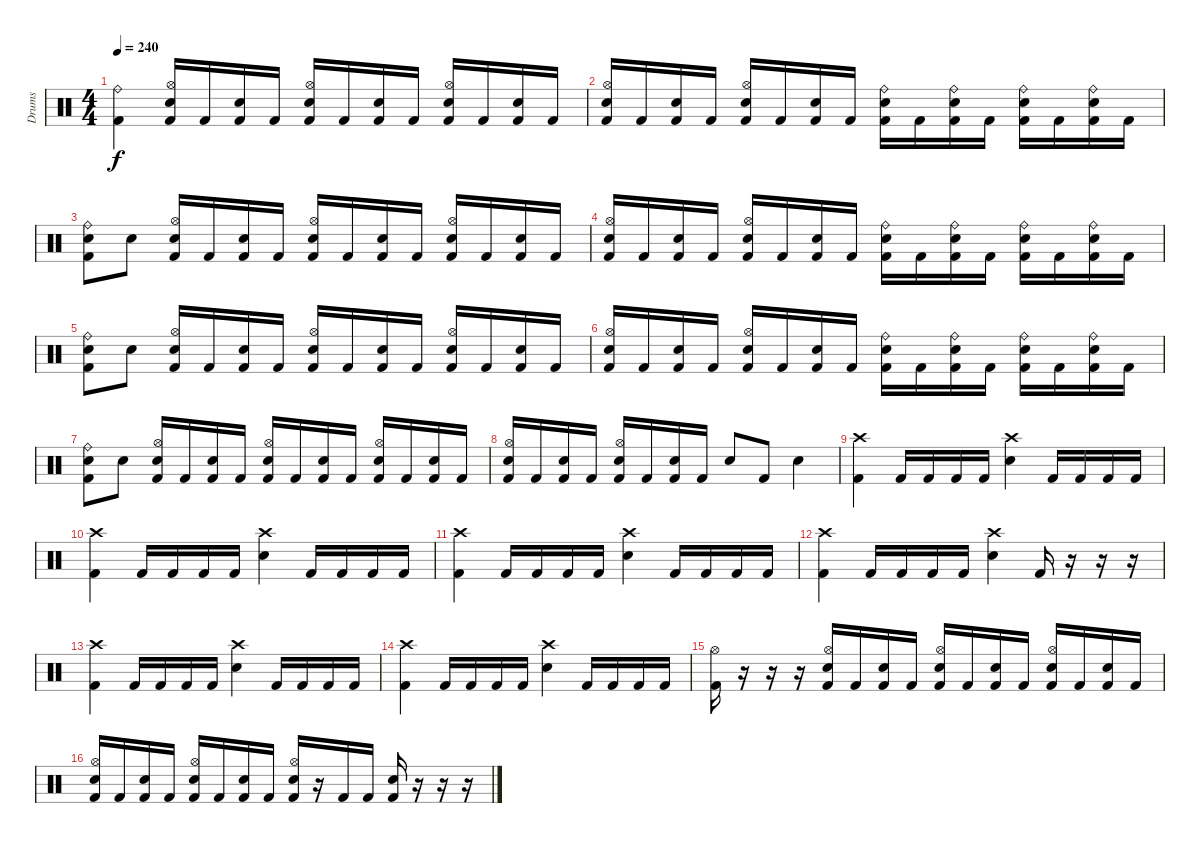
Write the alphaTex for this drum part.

\track ("Drums" "Drums") {instrument percussion}
\staff {score}
\articulation defaults
\ts (4 4)
\tempo 240
\clef neutral
\ks c
("Ride (bell)" "Kick (hit) 2").4{dy f} ("Hi-Hat (open)" "Snare (hit) 2" "Kick (hit) 2").16 "Kick (hit) 2".16 ("Snare (hit) 2" "Kick (hit) 2").16 "Kick (hit) 2".16 ("Hi-Hat (open)" "Snare (hit) 2" "Kick (hit) 2").16 "Kick (hit) 2".16 ("Snare (hit) 2" "Kick (hit) 2").16 "Kick (hit) 2".16 ("Hi-Hat (open)" "Snare (hit) 2" "Kick (hit) 2").16 "Kick (hit) 2".16 ("Snare (hit) 2" "Kick (hit) 2").16 "Kick (hit) 2".16 |
("Hi-Hat (open)" "Snare (hit) 2" "Kick (hit) 2").16 "Kick (hit) 2".16 ("Snare (hit) 2" "Kick (hit) 2").16 "Kick (hit) 2".16 ("Hi-Hat (open)" "Snare (hit) 2" "Kick (hit) 2").16 "Kick (hit) 2".16 ("Snare (hit) 2" "Kick (hit) 2").16 "Kick (hit) 2".16 ("Ride (bell)" "Snare (hit) 2" "Kick (hit) 2").16 "Kick (hit) 2".16 ("Ride (bell)" "Snare (hit) 2" "Kick (hit) 2").16 "Kick (hit) 2".16 ("Ride (bell)" "Snare (hit) 2" "Kick (hit) 2").16 "Kick (hit) 2".16 ("Ride (bell)" "Snare (hit) 2" "Kick (hit) 2").16 "Kick (hit) 2".16 |
("Ride (bell)" "Snare (hit) 2" "Kick (hit) 2").8 "Snare (hit) 2".8 ("Hi-Hat (open)" "Snare (hit) 2" "Kick (hit) 2").16 "Kick (hit) 2".16 ("Snare (hit) 2" "Kick (hit) 2").16 "Kick (hit) 2".16 ("Hi-Hat (open)" "Snare (hit) 2" "Kick (hit) 2").16 "Kick (hit) 2".16 ("Snare (hit) 2" "Kick (hit) 2").16 "Kick (hit) 2".16 ("Hi-Hat (open)" "Snare (hit) 2" "Kick (hit) 2").16 "Kick (hit) 2".16 ("Snare (hit) 2" "Kick (hit) 2").16 "Kick (hit) 2".16 |
("Hi-Hat (open)" "Snare (hit) 2" "Kick (hit) 2").16 "Kick (hit) 2".16 ("Snare (hit) 2" "Kick (hit) 2").16 "Kick (hit) 2".16 ("Hi-Hat (open)" "Snare (hit) 2" "Kick (hit) 2").16 "Kick (hit) 2".16 ("Snare (hit) 2" "Kick (hit) 2").16 "Kick (hit) 2".16 ("Ride (bell)" "Snare (hit) 2" "Kick (hit) 2").16 "Kick (hit) 2".16 ("Ride (bell)" "Snare (hit) 2" "Kick (hit) 2").16 "Kick (hit) 2".16 ("Ride (bell)" "Snare (hit) 2" "Kick (hit) 2").16 "Kick (hit) 2".16 ("Ride (bell)" "Snare (hit) 2" "Kick (hit) 2").16 "Kick (hit) 2".16 |
("Ride (bell)" "Snare (hit) 2" "Kick (hit) 2").8 "Snare (hit) 2".8 ("Hi-Hat (open)" "Snare (hit) 2" "Kick (hit) 2").16 "Kick (hit) 2".16 ("Snare (hit) 2" "Kick (hit) 2").16 "Kick (hit) 2".16 ("Hi-Hat (open)" "Snare (hit) 2" "Kick (hit) 2").16 "Kick (hit) 2".16 ("Snare (hit) 2" "Kick (hit) 2").16 "Kick (hit) 2".16 ("Hi-Hat (open)" "Snare (hit) 2" "Kick (hit) 2").16 "Kick (hit) 2".16 ("Snare (hit) 2" "Kick (hit) 2").16 "Kick (hit) 2".16 |
("Hi-Hat (open)" "Snare (hit) 2" "Kick (hit) 2").16 "Kick (hit) 2".16 ("Snare (hit) 2" "Kick (hit) 2").16 "Kick (hit) 2".16 ("Hi-Hat (open)" "Snare (hit) 2" "Kick (hit) 2").16 "Kick (hit) 2".16 ("Snare (hit) 2" "Kick (hit) 2").16 "Kick (hit) 2".16 ("Ride (bell)" "Snare (hit) 2" "Kick (hit) 2").16 "Kick (hit) 2".16 ("Ride (bell)" "Snare (hit) 2" "Kick (hit) 2").16 "Kick (hit) 2".16 ("Ride (bell)" "Snare (hit) 2" "Kick (hit) 2").16 "Kick (hit) 2".16 ("Ride (bell)" "Snare (hit) 2" "Kick (hit) 2").16 "Kick (hit) 2".16 |
("Ride (bell)" "Snare (hit) 2" "Kick (hit) 2").8 "Snare (hit) 2".8 ("Hi-Hat (open)" "Snare (hit) 2" "Kick (hit) 2").16 "Kick (hit) 2".16 ("Snare (hit) 2" "Kick (hit) 2").16 "Kick (hit) 2".16 ("Hi-Hat (open)" "Snare (hit) 2" "Kick (hit) 2").16 "Kick (hit) 2".16 ("Snare (hit) 2" "Kick (hit) 2").16 "Kick (hit) 2".16 ("Hi-Hat (open)" "Snare (hit) 2" "Kick (hit) 2").16 "Kick (hit) 2".16 ("Snare (hit) 2" "Kick (hit) 2").16 "Kick (hit) 2".16 |
("Hi-Hat (open)" "Snare (hit) 2" "Kick (hit) 2").16 "Kick (hit) 2".16 ("Snare (hit) 2" "Kick (hit) 2").16 "Kick (hit) 2".16 ("Hi-Hat (open)" "Snare (hit) 2" "Kick (hit) 2").16 "Kick (hit) 2".16 ("Snare (hit) 2" "Kick (hit) 2").16 "Kick (hit) 2".16 "Snare (hit) 2".8 "Kick (hit) 2".8 "Snare (hit) 2".4 |
("Crash high (hit)" "Kick (hit) 2").4 "Kick (hit) 2".16 "Kick (hit) 2".16 "Kick (hit) 2".16 "Kick (hit) 2".16 ("Crash high (hit)" "Snare (hit) 2").4 "Kick (hit) 2".16 "Kick (hit) 2".16 "Kick (hit) 2".16 "Kick (hit) 2".16 |
("Crash high (hit)" "Kick (hit) 2").4 "Kick (hit) 2".16 "Kick (hit) 2".16 "Kick (hit) 2".16 "Kick (hit) 2".16 ("Crash high (hit)" "Snare (hit) 2").4 "Kick (hit) 2".16 "Kick (hit) 2".16 "Kick (hit) 2".16 "Kick (hit) 2".16 |
("Crash high (hit)" "Kick (hit) 2").4 "Kick (hit) 2".16 "Kick (hit) 2".16 "Kick (hit) 2".16 "Kick (hit) 2".16 ("Crash high (hit)" "Snare (hit) 2").4 "Kick (hit) 2".16 "Kick (hit) 2".16 "Kick (hit) 2".16 "Kick (hit) 2".16 |
("Crash high (hit)" "Kick (hit) 2").4 "Kick (hit) 2".16 "Kick (hit) 2".16 "Kick (hit) 2".16 "Kick (hit) 2".16 ("Crash high (hit)" "Snare (hit) 2").4 "Kick (hit) 2".16 r.16 r.16 r.16 |
("Crash high (hit)" "Kick (hit) 2").4 "Kick (hit) 2".16 "Kick (hit) 2".16 "Kick (hit) 2".16 "Kick (hit) 2".16 ("Crash high (hit)" "Snare (hit) 2").4 "Kick (hit) 2".16 "Kick (hit) 2".16 "Kick (hit) 2".16 "Kick (hit) 2".16 |
("Crash high (hit)" "Kick (hit) 2").4 "Kick (hit) 2".16 "Kick (hit) 2".16 "Kick (hit) 2".16 "Kick (hit) 2".16 ("Crash high (hit)" "Snare (hit) 2").4 "Kick (hit) 2".16 "Kick (hit) 2".16 "Kick (hit) 2".16 "Kick (hit) 2".16 |
("Hi-Hat (open)" "Kick (hit) 2").16 r.16 r.16 r.16 ("Hi-Hat (open)" "Snare (hit) 2" "Kick (hit) 2").16 "Kick (hit) 2".16 ("Snare (hit) 2" "Kick (hit) 2").16 "Kick (hit) 2".16 ("Hi-Hat (open)" "Snare (hit) 2" "Kick (hit) 2").16 "Kick (hit) 2".16 ("Snare (hit) 2" "Kick (hit) 2").16 "Kick (hit) 2".16 ("Hi-Hat (open)" "Snare (hit) 2" "Kick (hit) 2").16 "Kick (hit) 2".16 ("Snare (hit) 2" "Kick (hit) 2").16 "Kick (hit) 2".16 |
("Hi-Hat (open)" "Snare (hit) 2" "Kick (hit) 2").16 "Kick (hit) 2".16 ("Snare (hit) 2" "Kick (hit) 2").16 "Kick (hit) 2".16 ("Hi-Hat (open)" "Snare (hit) 2" "Kick (hit) 2").16 "Kick (hit) 2".16 ("Snare (hit) 2" "Kick (hit) 2").16 "Kick (hit) 2".16 ("Hi-Hat (open)" "Snare (hit) 2" "Kick (hit) 2").16 r.16 "Kick (hit) 2".16 "Kick (hit) 2".16 ("Snare (hit) 2" "Kick (hit) 2").16 r.16 r.16 r.16
